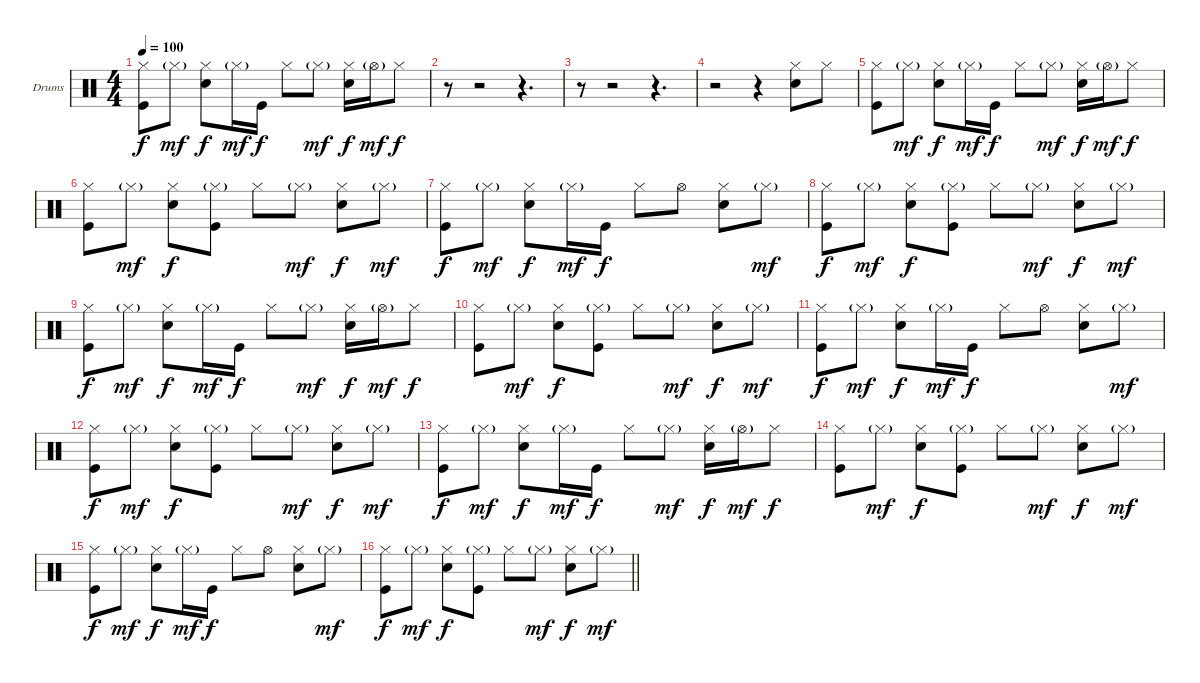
\bracketExtendMode groupsimilarinstruments
\firstSystemTrackNameOrientation horizontal
\otherSystemsTrackNameOrientation horizontal
\track ("Drumkit" "Drums") {instrument percussion}
\staff {score}
\articulation defaults
\ts (4 4)
\tempo 100
\clef neutral
\ks c
("Hi-Hat (closed)" "Kick (hit)").8{dy f} "Hi-Hat (closed)"{g}.8{dy mf} ("Hi-Hat (closed)" "Snare (hit) 2").8{dy f} "Hi-Hat (closed)"{g}.16{dy mf} "Kick (hit)".16{dy f} "Hi-Hat (closed)".8 "Hi-Hat (closed)"{g}.8{dy mf} ("Hi-Hat (closed)" "Snare (hit) 2").16{dy f} "Hi-Hat (open)"{g}.16{dy mf} "Hi-Hat (closed)".8{dy f} |
r.8 r.2 r.4{d} |
r.8 r.2 r.4{d} |
r.2 r.4 ("Hi-Hat (closed)" "Snare (hit) 2").8 "Hi-Hat (closed)".8 |
("Hi-Hat (closed)" "Kick (hit)").8 "Hi-Hat (closed)"{g}.8{dy mf} ("Hi-Hat (closed)" "Snare (hit) 2").8{dy f} "Hi-Hat (closed)"{g}.16{dy mf} "Kick (hit)".16{dy f} "Hi-Hat (closed)".8 "Hi-Hat (closed)"{g}.8{dy mf} ("Hi-Hat (closed)" "Snare (hit) 2").16{dy f} "Hi-Hat (open)"{g}.16{dy mf} "Hi-Hat (closed)".8{dy f} |
("Hi-Hat (closed)" "Kick (hit)").8 "Hi-Hat (closed)"{g}.8{dy mf} ("Hi-Hat (closed)" "Snare (hit) 2").8{dy f} ("Hi-Hat (closed)"{g} "Kick (hit)").8 "Hi-Hat (closed)".8 "Hi-Hat (closed)"{g}.8{dy mf} ("Hi-Hat (closed)" "Snare (hit) 2").8{dy f} "Hi-Hat (closed)"{g}.8{dy mf} |
("Hi-Hat (closed)" "Kick (hit)").8{dy f} "Hi-Hat (closed)"{g}.8{dy mf} ("Hi-Hat (closed)" "Snare (hit) 2").8{dy f} "Hi-Hat (closed)"{g}.16{dy mf} "Kick (hit)".16{dy f} "Hi-Hat (closed)".8 "Hi-Hat (open)".8 ("Hi-Hat (closed)" "Snare (hit) 2").8 "Hi-Hat (closed)"{g}.8{dy mf} |
("Hi-Hat (closed)" "Kick (hit)").8{dy f} "Hi-Hat (closed)"{g}.8{dy mf} ("Hi-Hat (closed)" "Snare (hit) 2").8{dy f} ("Hi-Hat (closed)"{g} "Kick (hit)").8 "Hi-Hat (closed)".8 "Hi-Hat (closed)"{g}.8{dy mf} ("Hi-Hat (closed)" "Snare (hit) 2").8{dy f} "Hi-Hat (closed)"{g}.8{dy mf} |
("Hi-Hat (closed)" "Kick (hit)").8{dy f} "Hi-Hat (closed)"{g}.8{dy mf} ("Hi-Hat (closed)" "Snare (hit) 2").8{dy f} "Hi-Hat (closed)"{g}.16{dy mf} "Kick (hit)".16{dy f} "Hi-Hat (closed)".8 "Hi-Hat (closed)"{g}.8{dy mf} ("Hi-Hat (closed)" "Snare (hit) 2").16{dy f} "Hi-Hat (open)"{g}.16{dy mf} "Hi-Hat (closed)".8{dy f} |
("Hi-Hat (closed)" "Kick (hit)").8 "Hi-Hat (closed)"{g}.8{dy mf} ("Hi-Hat (closed)" "Snare (hit) 2").8{dy f} ("Hi-Hat (closed)"{g} "Kick (hit)").8 "Hi-Hat (closed)".8 "Hi-Hat (closed)"{g}.8{dy mf} ("Hi-Hat (closed)" "Snare (hit) 2").8{dy f} "Hi-Hat (closed)"{g}.8{dy mf} |
("Hi-Hat (closed)" "Kick (hit)").8{dy f} "Hi-Hat (closed)"{g}.8{dy mf} ("Hi-Hat (closed)" "Snare (hit) 2").8{dy f} "Hi-Hat (closed)"{g}.16{dy mf} "Kick (hit)".16{dy f} "Hi-Hat (closed)".8 "Hi-Hat (open)".8 ("Hi-Hat (closed)" "Snare (hit) 2").8 "Hi-Hat (closed)"{g}.8{dy mf} |
("Hi-Hat (closed)" "Kick (hit)").8{dy f} "Hi-Hat (closed)"{g}.8{dy mf} ("Hi-Hat (closed)" "Snare (hit) 2").8{dy f} ("Hi-Hat (closed)"{g} "Kick (hit)").8 "Hi-Hat (closed)".8 "Hi-Hat (closed)"{g}.8{dy mf} ("Hi-Hat (closed)" "Snare (hit) 2").8{dy f} "Hi-Hat (closed)"{g}.8{dy mf} |
("Hi-Hat (closed)" "Kick (hit)").8{dy f} "Hi-Hat (closed)"{g}.8{dy mf} ("Hi-Hat (closed)" "Snare (hit) 2").8{dy f} "Hi-Hat (closed)"{g}.16{dy mf} "Kick (hit)".16{dy f} "Hi-Hat (closed)".8 "Hi-Hat (closed)"{g}.8{dy mf} ("Hi-Hat (closed)" "Snare (hit) 2").16{dy f} "Hi-Hat (open)"{g}.16{dy mf} "Hi-Hat (closed)".8{dy f} |
("Hi-Hat (closed)" "Kick (hit)").8 "Hi-Hat (closed)"{g}.8{dy mf} ("Hi-Hat (closed)" "Snare (hit) 2").8{dy f} ("Hi-Hat (closed)"{g} "Kick (hit)").8 "Hi-Hat (closed)".8 "Hi-Hat (closed)"{g}.8{dy mf} ("Hi-Hat (closed)" "Snare (hit) 2").8{dy f} "Hi-Hat (closed)"{g}.8{dy mf} |
("Hi-Hat (closed)" "Kick (hit)").8{dy f} "Hi-Hat (closed)"{g}.8{dy mf} ("Hi-Hat (closed)" "Snare (hit) 2").8{dy f} "Hi-Hat (closed)"{g}.16{dy mf} "Kick (hit)".16{dy f} "Hi-Hat (closed)".8 "Hi-Hat (open)".8 ("Hi-Hat (closed)" "Snare (hit) 2").8 "Hi-Hat (closed)"{g}.8{dy mf} |
\barLineRight lightlight
("Hi-Hat (closed)" "Kick (hit)").8{dy f} "Hi-Hat (closed)"{g}.8{dy mf} ("Hi-Hat (closed)" "Snare (hit) 2").8{dy f} ("Hi-Hat (closed)"{g} "Kick (hit)").8 "Hi-Hat (closed)".8 "Hi-Hat (closed)"{g}.8{dy mf} ("Hi-Hat (closed)" "Snare (hit) 2").8{dy f} "Hi-Hat (closed)"{g}.8{dy mf}
